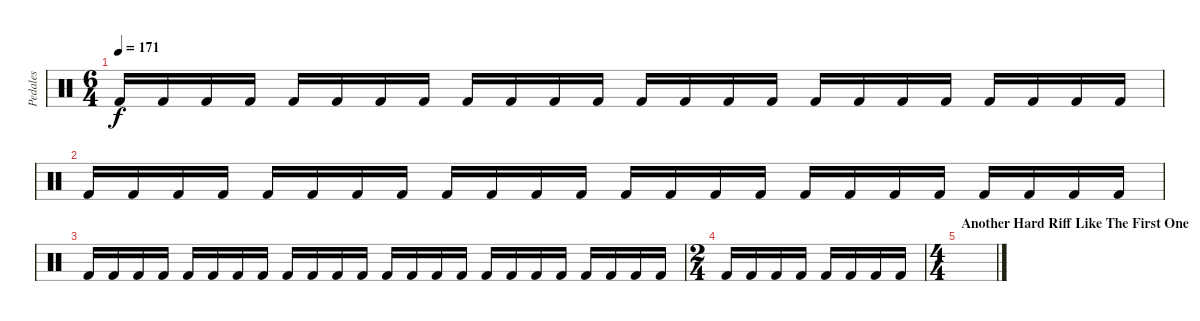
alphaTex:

\track ("Pedales" "Pedales") {instrument percussion}
\staff {score}
\articulation defaults
\ts (6 4)
\tempo 171
\clef neutral
\ks c "Kick (hit) 2".16{dy f} "Kick (hit) 2".16 "Kick (hit) 2".16 "Kick (hit) 2".16 "Kick (hit) 2".16 "Kick (hit) 2".16 "Kick (hit) 2".16 "Kick (hit) 2".16 "Kick (hit) 2".16 "Kick (hit) 2".16 "Kick (hit) 2".16 "Kick (hit) 2".16 "Kick (hit) 2".16 "Kick (hit) 2".16 "Kick (hit) 2".16 "Kick (hit) 2".16 "Kick (hit) 2".16 "Kick (hit) 2".16 "Kick (hit) 2".16 "Kick (hit) 2".16 "Kick (hit) 2".16 "Kick (hit) 2".16 "Kick (hit) 2".16 "Kick (hit) 2".16
|
"Kick (hit) 2".16 "Kick (hit) 2".16 "Kick (hit) 2".16 "Kick (hit) 2".16 "Kick (hit) 2".16 "Kick (hit) 2".16 "Kick (hit) 2".16 "Kick (hit) 2".16 "Kick (hit) 2".16 "Kick (hit) 2".16 "Kick (hit) 2".16 "Kick (hit) 2".16 "Kick (hit) 2".16 "Kick (hit) 2".16 "Kick (hit) 2".16 "Kick (hit) 2".16 "Kick (hit) 2".16 "Kick (hit) 2".16 "Kick (hit) 2".16 "Kick (hit) 2".16 "Kick (hit) 2".16 "Kick (hit) 2".16 "Kick (hit) 2".16 "Kick (hit) 2".16 |
"Kick (hit) 2".16 "Kick (hit) 2".16 "Kick (hit) 2".16 "Kick (hit) 2".16 "Kick (hit) 2".16 "Kick (hit) 2".16 "Kick (hit) 2".16 "Kick (hit) 2".16 "Kick (hit) 2".16 "Kick (hit) 2".16 "Kick (hit) 2".16 "Kick (hit) 2".16 "Kick (hit) 2".16 "Kick (hit) 2".16 "Kick (hit) 2".16 "Kick (hit) 2".16 "Kick (hit) 2".16 "Kick (hit) 2".16 "Kick (hit) 2".16 "Kick (hit) 2".16 "Kick (hit) 2".16 "Kick (hit) 2".16 "Kick (hit) 2".16 "Kick (hit) 2".16 |
\ts (2 4)
"Kick (hit) 2".16 "Kick (hit) 2".16 "Kick (hit) 2".16 "Kick (hit) 2".16 "Kick (hit) 2".16 "Kick (hit) 2".16 "Kick (hit) 2".16 "Kick (hit) 2".16 |
\ts (4 4)
\section ("" "Another Hard Riff Like The First One")
